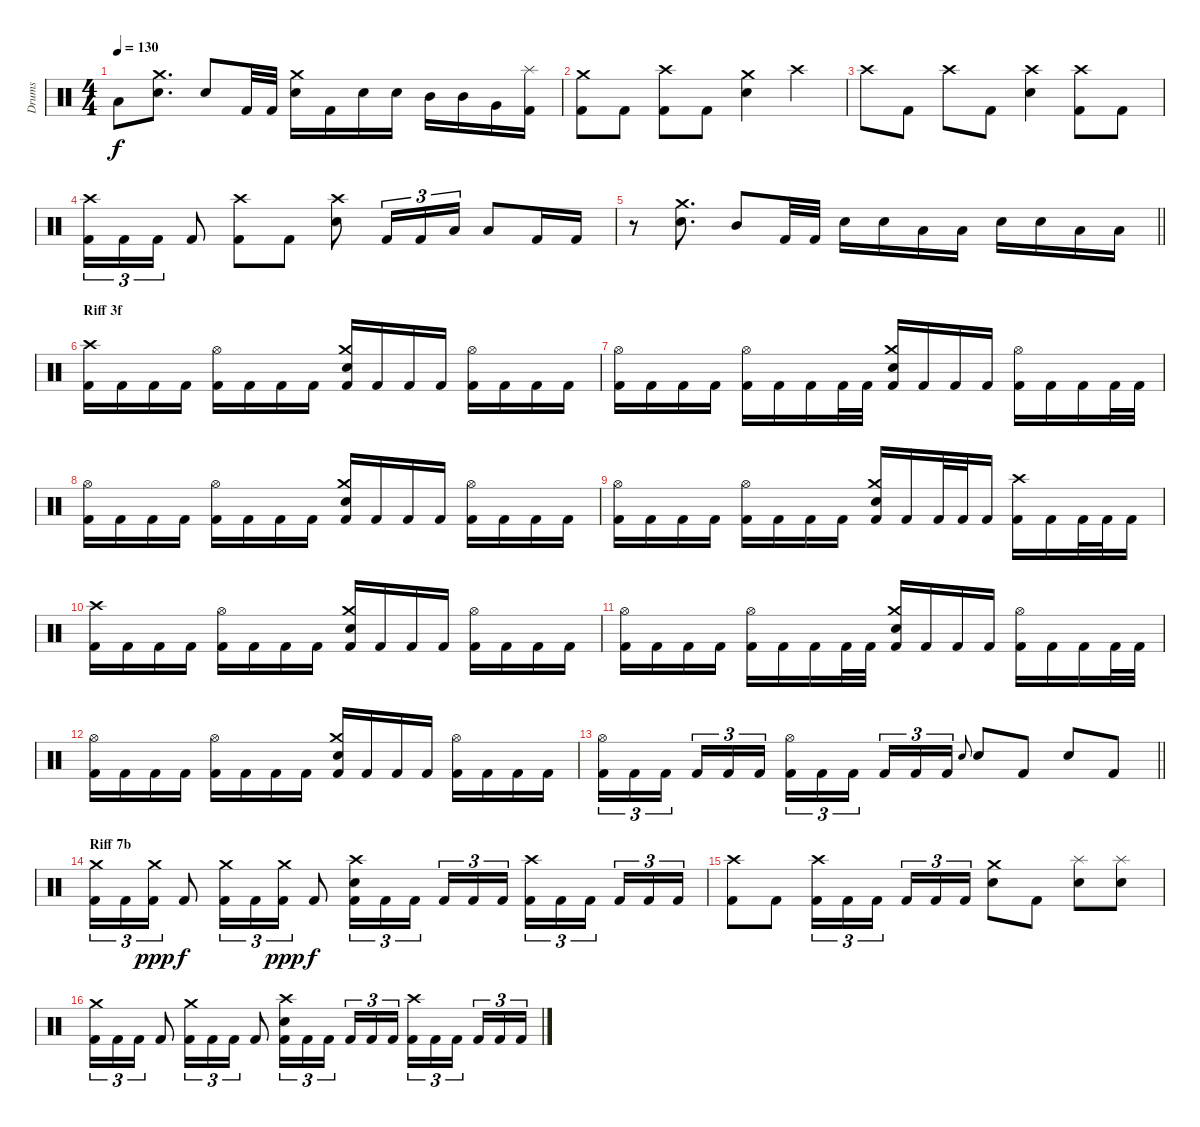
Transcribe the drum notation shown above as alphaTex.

\track ("Drums" "Drums") {instrument percussion}
\staff {score}
\articulation defaults
\ts (4 4)
\tempo 130
\clef neutral
\ks c "Low Floor Tom (hit)".8{dy f}
("Electric Snare (hit)" "Crash medium (hit)").8{d} "Electric Snare (hit)".8 "Kick (hit) 2".32 "Kick (hit) 2".32 ("Electric Snare (hit)" "Crash medium (hit)").16 "Kick (hit) 2".16 "Electric Snare (hit)".16 "Electric Snare (hit)".16 "Mid Tom (hit)".16 "Mid Tom (hit)".16 "Very Low Tom (hit)".16 ("Splash (hit)" "Kick (hit) 2").16 |
("Crash medium (hit)" "Kick (hit) 2").8 "Kick (hit) 2".8 ("Crash high (hit)" "Kick (hit) 2").8 "Kick (hit) 2".8 ("Electric Snare (hit)" "Crash medium (hit)").4 "Crash high (hit)".4 |
"Crash high (hit)".8 "Kick (hit) 2".8 "Crash high (hit)".8 "Kick (hit) 2".8 ("Electric Snare (hit)" "Crash high (hit)").4 ("Crash high (hit)" "Kick (hit) 2").8 "Kick (hit) 2".8 |
("Crash high (hit)" "Kick (hit) 2").16{tu (3 2)} "Kick (hit) 2".16{tu (3 2)} "Kick (hit) 2".16{tu (3 2)} "Kick (hit) 2".8 ("Crash high (hit)" "Kick (hit) 2").8 "Kick (hit) 2".8 ("Electric Snare (hit)" "Crash high (hit)").8 "Kick (hit) 2".16{tu (3 2)} "Kick (hit) 2".16{tu (3 2)} "Low Floor Tom (hit)".16{tu (3 2)} "Low Floor Tom (hit)".8 "Kick (hit) 2".16 "Kick (hit) 2".16 |
\barLineRight lightlight
r.8 ("Electric Snare (hit)" "Crash medium (hit)").8{d} "Mid Tom (hit)".8 "Kick (hit) 2".32 "Kick (hit) 2".32 "Electric Snare (hit)".16 "Electric Snare (hit)".16 "Low Tom (hit)".16 "Low Tom (hit)".16 "Electric Snare (hit)".16 "Electric Snare (hit)".16 "Low Tom (hit)".16 "Low Tom (hit)".16 |
\section ("" "Riff 3f")
("Crash high (hit)" "Kick (hit) 2").16 "Kick (hit) 2".16 "Kick (hit) 2".16 "Kick (hit) 2".16 ("Hi-Hat (open)" "Kick (hit) 2").16 "Kick (hit) 2".16 "Kick (hit) 2".16 "Kick (hit) 2".16 ("Crash medium (hit)" "Electric Snare (hit)" "Kick (hit) 2").16 "Kick (hit) 2".16 "Kick (hit) 2".16 "Kick (hit) 2".16 ("Hi-Hat (open)" "Kick (hit) 2").16 "Kick (hit) 2".16 "Kick (hit) 2".16 "Kick (hit) 2".16 |
("Hi-Hat (open)" "Kick (hit) 2").16 "Kick (hit) 2".16 "Kick (hit) 2".16 "Kick (hit) 2".16 ("Hi-Hat (open)" "Kick (hit) 2").16 "Kick (hit) 2".16 "Kick (hit) 2".16 "Kick (hit) 2".32 "Kick (hit) 2".32 ("Crash medium (hit)" "Electric Snare (hit)" "Kick (hit) 2").16 "Kick (hit) 2".16 "Kick (hit) 2".16 "Kick (hit) 2".16 ("Hi-Hat (open)" "Kick (hit) 2").16 "Kick (hit) 2".16 "Kick (hit) 2".16 "Kick (hit) 2".32 "Kick (hit) 2".32 |
("Hi-Hat (open)" "Kick (hit) 2").16 "Kick (hit) 2".16 "Kick (hit) 2".16 "Kick (hit) 2".16 ("Hi-Hat (open)" "Kick (hit) 2").16 "Kick (hit) 2".16 "Kick (hit) 2".16 "Kick (hit) 2".16 ("Crash medium (hit)" "Electric Snare (hit)" "Kick (hit) 2").16 "Kick (hit) 2".16 "Kick (hit) 2".16 "Kick (hit) 2".16 ("Hi-Hat (open)" "Kick (hit) 2").16 "Kick (hit) 2".16 "Kick (hit) 2".16 "Kick (hit) 2".16 |
("Hi-Hat (open)" "Kick (hit) 2").16 "Kick (hit) 2".16 "Kick (hit) 2".16 "Kick (hit) 2".16 ("Hi-Hat (open)" "Kick (hit) 2").16 "Kick (hit) 2".16 "Kick (hit) 2".16 "Kick (hit) 2".16 ("Crash medium (hit)" "Electric Snare (hit)" "Kick (hit) 2").16 "Kick (hit) 2".16 "Kick (hit) 2".32 "Kick (hit) 2".32 "Kick (hit) 2".16 ("Kick (hit) 2" "Crash high (hit)").16 "Kick (hit) 2".16 "Kick (hit) 2".32 "Kick (hit) 2".32 "Kick (hit) 2".16 |
("Crash high (hit)" "Kick (hit) 2").16 "Kick (hit) 2".16 "Kick (hit) 2".16 "Kick (hit) 2".16 ("Hi-Hat (open)" "Kick (hit) 2").16 "Kick (hit) 2".16 "Kick (hit) 2".16 "Kick (hit) 2".16 ("Crash medium (hit)" "Electric Snare (hit)" "Kick (hit) 2").16 "Kick (hit) 2".16 "Kick (hit) 2".16 "Kick (hit) 2".16 ("Hi-Hat (open)" "Kick (hit) 2").16 "Kick (hit) 2".16 "Kick (hit) 2".16 "Kick (hit) 2".16 |
("Hi-Hat (open)" "Kick (hit) 2").16 "Kick (hit) 2".16 "Kick (hit) 2".16 "Kick (hit) 2".16 ("Hi-Hat (open)" "Kick (hit) 2").16 "Kick (hit) 2".16 "Kick (hit) 2".16 "Kick (hit) 2".32 "Kick (hit) 2".32 ("Crash medium (hit)" "Electric Snare (hit)" "Kick (hit) 2").16 "Kick (hit) 2".16 "Kick (hit) 2".16 "Kick (hit) 2".16 ("Hi-Hat (open)" "Kick (hit) 2").16 "Kick (hit) 2".16 "Kick (hit) 2".16 "Kick (hit) 2".32 "Kick (hit) 2".32 |
("Hi-Hat (open)" "Kick (hit) 2").16 "Kick (hit) 2".16 "Kick (hit) 2".16 "Kick (hit) 2".16 ("Hi-Hat (open)" "Kick (hit) 2").16 "Kick (hit) 2".16 "Kick (hit) 2".16 "Kick (hit) 2".16 ("Crash medium (hit)" "Electric Snare (hit)" "Kick (hit) 2").16 "Kick (hit) 2".16 "Kick (hit) 2".16 "Kick (hit) 2".16 ("Hi-Hat (open)" "Kick (hit) 2").16 "Kick (hit) 2".16 "Kick (hit) 2".16 "Kick (hit) 2".16 |
\barLineRight lightlight
("Hi-Hat (open)" "Kick (hit) 2").16{tu (3 2)} "Kick (hit) 2".16{tu (3 2)} "Kick (hit) 2".16{tu (3 2) beam splitsecondary} "Kick (hit) 2".16{tu (3 2)} "Kick (hit) 2".16{tu (3 2)} "Kick (hit) 2".16{tu (3 2)} ("Hi-Hat (open)" "Kick (hit) 2").16{tu (3 2)} "Kick (hit) 2".16{tu (3 2)} "Kick (hit) 2".16{tu (3 2) beam splitsecondary} "Kick (hit) 2".16{tu (3 2)} "Kick (hit) 2".16{tu (3 2)} "Kick (hit) 2".16{tu (3 2)} "Electric Snare (hit)".8{gr onbeat} "Electric Snare (hit)".8 "Kick (hit) 2".8 "Electric Snare (hit)".8 "Kick (hit) 2".8 |
\section ("" "Riff 7b")
("Crash medium (hit)" "Kick (hit) 2").16{tu (3 2)} "Kick (hit) 2".16{tu (3 2)} ("Crash medium (hit)" "Kick (hit) 2").16{tu (3 2) dy ppp} "Kick (hit) 2".8{dy f} ("Crash medium (hit)" "Kick (hit) 2").16{tu (3 2)} "Kick (hit) 2".16{tu (3 2)} ("Crash medium (hit)" "Kick (hit) 2").16{tu (3 2) dy ppp} "Kick (hit) 2".8{dy f} ("Crash high (hit)" "Kick (hit) 2" "Electric Snare (hit)").16{tu (3 2)} "Kick (hit) 2".16{tu (3 2)} "Kick (hit) 2".16{tu (3 2) beam splitsecondary} "Kick (hit) 2".16{tu (3 2)} "Kick (hit) 2".16{tu (3 2)} "Kick (hit) 2".16{tu (3 2)} ("Crash high (hit)" "Kick (hit) 2").16{tu (3 2)} "Kick (hit) 2".16{tu (3 2)} "Kick (hit) 2".16{tu (3 2) beam splitsecondary} "Kick (hit) 2".16{tu (3 2)} "Kick (hit) 2".16{tu (3 2)} "Kick (hit) 2".16{tu (3 2)} |
("Kick (hit) 2" "Crash high (hit)").8 "Kick (hit) 2".8 ("Crash high (hit)" "Kick (hit) 2").16{tu (3 2)} "Kick (hit) 2".16{tu (3 2)} "Kick (hit) 2".16{tu (3 2) beam splitsecondary} "Kick (hit) 2".16{tu (3 2)} "Kick (hit) 2".16{tu (3 2)} "Kick (hit) 2".16{tu (3 2)} ("Crash medium (hit)" "Electric Snare (hit)").8 "Kick (hit) 2".8 ("Electric Snare (hit)" "Splash (hit)").8 ("Electric Snare (hit)" "Splash (hit)").8 |
("Crash medium (hit)" "Kick (hit) 2").16{tu (3 2)} "Kick (hit) 2".16{tu (3 2)} "Kick (hit) 2".16{tu (3 2)} "Kick (hit) 2".8 ("Crash medium (hit)" "Kick (hit) 2").16{tu (3 2)} "Kick (hit) 2".16{tu (3 2)} "Kick (hit) 2".16{tu (3 2)} "Kick (hit) 2".8 ("Crash high (hit)" "Kick (hit) 2" "Electric Snare (hit)").16{tu (3 2)} "Kick (hit) 2".16{tu (3 2)} "Kick (hit) 2".16{tu (3 2) beam splitsecondary} "Kick (hit) 2".16{tu (3 2)} "Kick (hit) 2".16{tu (3 2)} "Kick (hit) 2".16{tu (3 2)} ("Crash high (hit)" "Kick (hit) 2").16{tu (3 2)} "Kick (hit) 2".16{tu (3 2)} "Kick (hit) 2".16{tu (3 2) beam splitsecondary} "Kick (hit) 2".16{tu (3 2)} "Kick (hit) 2".16{tu (3 2)} "Kick (hit) 2".16{tu (3 2)}
